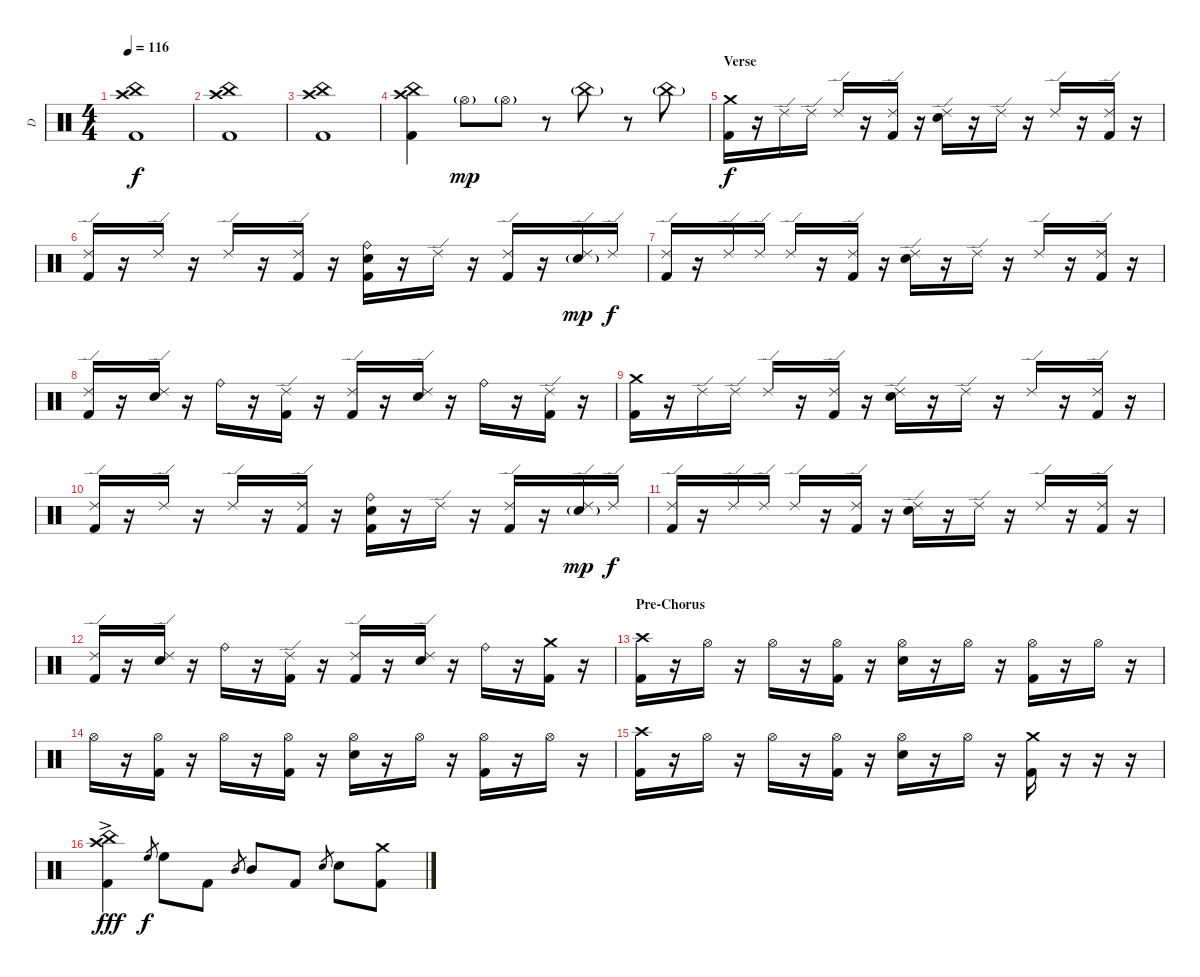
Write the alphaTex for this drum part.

\track ("D" "D") {instrument percussion}
\staff {score}
\articulation defaults
\ts (4 4)
\tempo 116
\clef neutral
\ks c
("Crash high (hit)" "China (hit)" "Kick (hit) 2").1{dy f} |
("Crash high (hit)" "China (hit)" "Kick (hit) 2").1 |
("Crash high (hit)" "China (hit)" "Kick (hit) 2").1 |
("Crash high (hit)" "China (hit)" "Kick (hit) 2").4 "Hi-Hat (open)"{g}.8{dy mp} "Hi-Hat (open)"{g}.8 r.8 "China (hit)"{g}.8 r.8 "China (hit)"{g}.8 |
\section ("" "Verse")
("Crash medium (hit)" "Kick (hit) 2").16{dy f} r.16 "Ride (edge) 2".16 "Ride (edge) 2".16 "Ride (edge) 2".16 r.16 ("Ride (edge) 2" "Kick (hit) 2").16 r.16 ("Ride (edge) 2" "Electric Snare (hit)").16 r.16 "Ride (edge) 2".16 r.16 "Ride (edge) 2".16 r.16 ("Ride (edge) 2" "Kick (hit) 2").16 r.16 |
("Ride (edge) 2" "Kick (hit) 2").16 r.16 "Ride (edge) 2".16 r.16 "Ride (edge) 2".16 r.16 ("Ride (edge) 2" "Kick (hit) 2").16 r.16 ("Ride (bell)" "Electric Snare (hit)" "Kick (hit) 2").16 r.16 "Ride (edge) 2".16 r.16 ("Ride (edge) 2" "Kick (hit) 2").16 r.16 ("Ride (edge) 2" "Electric Snare (hit)"{g}).16{dy mp} "Ride (edge) 2".16{dy f} |
("Ride (edge) 2" "Kick (hit) 2").16 r.16 "Ride (edge) 2".16 "Ride (edge) 2".16 "Ride (edge) 2".16 r.16 ("Ride (edge) 2" "Kick (hit) 2").16 r.16 ("Ride (edge) 2" "Electric Snare (hit)").16 r.16 "Ride (edge) 2".16 r.16 "Ride (edge) 2".16 r.16 ("Ride (edge) 2" "Kick (hit) 2").16 r.16 |
("Ride (edge) 2" "Kick (hit) 2").16 r.16 ("Ride (edge) 2" "Electric Snare (hit)").16 r.16 "Ride (bell)".16 r.16 ("Ride (edge) 2" "Kick (hit) 2").16 r.16 ("Ride (edge) 2" "Kick (hit) 2").16 r.16 ("Ride (edge) 2" "Electric Snare (hit)").16 r.16 "Ride (bell)".16 r.16 ("Ride (edge) 2" "Kick (hit) 2").16 r.16 |
("Crash medium (hit)" "Kick (hit) 2").16 r.16 "Ride (edge) 2".16 "Ride (edge) 2".16 "Ride (edge) 2".16 r.16 ("Ride (edge) 2" "Kick (hit) 2").16 r.16 ("Ride (edge) 2" "Electric Snare (hit)").16 r.16 "Ride (edge) 2".16 r.16 "Ride (edge) 2".16 r.16 ("Ride (edge) 2" "Kick (hit) 2").16 r.16 |
("Ride (edge) 2" "Kick (hit) 2").16 r.16 "Ride (edge) 2".16 r.16 "Ride (edge) 2".16 r.16 ("Ride (edge) 2" "Kick (hit) 2").16 r.16 ("Ride (bell)" "Electric Snare (hit)" "Kick (hit) 2").16 r.16 "Ride (edge) 2".16 r.16 ("Ride (edge) 2" "Kick (hit) 2").16 r.16 ("Ride (edge) 2" "Electric Snare (hit)"{g}).16{dy mp} "Ride (edge) 2".16{dy f} |
("Ride (edge) 2" "Kick (hit) 2").16 r.16 "Ride (edge) 2".16 "Ride (edge) 2".16 "Ride (edge) 2".16 r.16 ("Ride (edge) 2" "Kick (hit) 2").16 r.16 ("Ride (edge) 2" "Electric Snare (hit)").16 r.16 "Ride (edge) 2".16 r.16 "Ride (edge) 2".16 r.16 ("Ride (edge) 2" "Kick (hit) 2").16 r.16 |
("Ride (edge) 2" "Kick (hit) 2").16 r.16 ("Ride (edge) 2" "Electric Snare (hit)").16 r.16 "Ride (bell)".16 r.16 ("Ride (edge) 2" "Kick (hit) 2").16 r.16 ("Ride (edge) 2" "Kick (hit) 2").16 r.16 ("Ride (edge) 2" "Electric Snare (hit)").16 r.16 "Ride (bell)".16 r.16 ("Crash medium (hit)" "Kick (hit) 2").16 r.16 |
\section ("" "Pre-Chorus")
("Crash high (hit)" "Kick (hit) 2").16 r.16 "Hi-Hat (open)".16 r.16 "Hi-Hat (open)".16 r.16 ("Hi-Hat (open)" "Kick (hit) 2").16 r.16 ("Hi-Hat (open)" "Electric Snare (hit)").16 r.16 "Hi-Hat (open)".16 r.16 ("Hi-Hat (open)" "Kick (hit) 2").16 r.16 "Hi-Hat (open)".16 r.16 |
"Hi-Hat (open)".16 r.16 ("Hi-Hat (open)" "Kick (hit) 2").16 r.16 "Hi-Hat (open)".16 r.16 ("Hi-Hat (open)" "Kick (hit) 2").16 r.16 ("Hi-Hat (open)" "Electric Snare (hit)").16 r.16 "Hi-Hat (open)".16 r.16 ("Hi-Hat (open)" "Kick (hit) 2").16 r.16 "Hi-Hat (open)".16 r.16 |
("Crash high (hit)" "Kick (hit) 2").16 r.16 "Hi-Hat (open)".16 r.16 "Hi-Hat (open)".16 r.16 ("Hi-Hat (open)" "Kick (hit) 2").16 r.16 ("Hi-Hat (open)" "Electric Snare (hit)").16 r.16 "Hi-Hat (open)".16 r.16 ("Crash medium (hit)" "Kick (hit) 2").16 r.16 r.16 r.16 |
("Crash high (hit)" "China (hit)"{ac} "Kick (hit) 2").4{dy fff} "High Floor Tom (hit)".8{gr dy f} "High Floor Tom (hit)".8 "Kick (hit) 2".8 "Mid Tom (hit)".8{gr} "Mid Tom (hit)".8 "Kick (hit) 2".8 "Electric Snare (hit)".8{gr} "Electric Snare (hit)".8 ("Crash medium (hit)" "Kick (hit) 2").8
